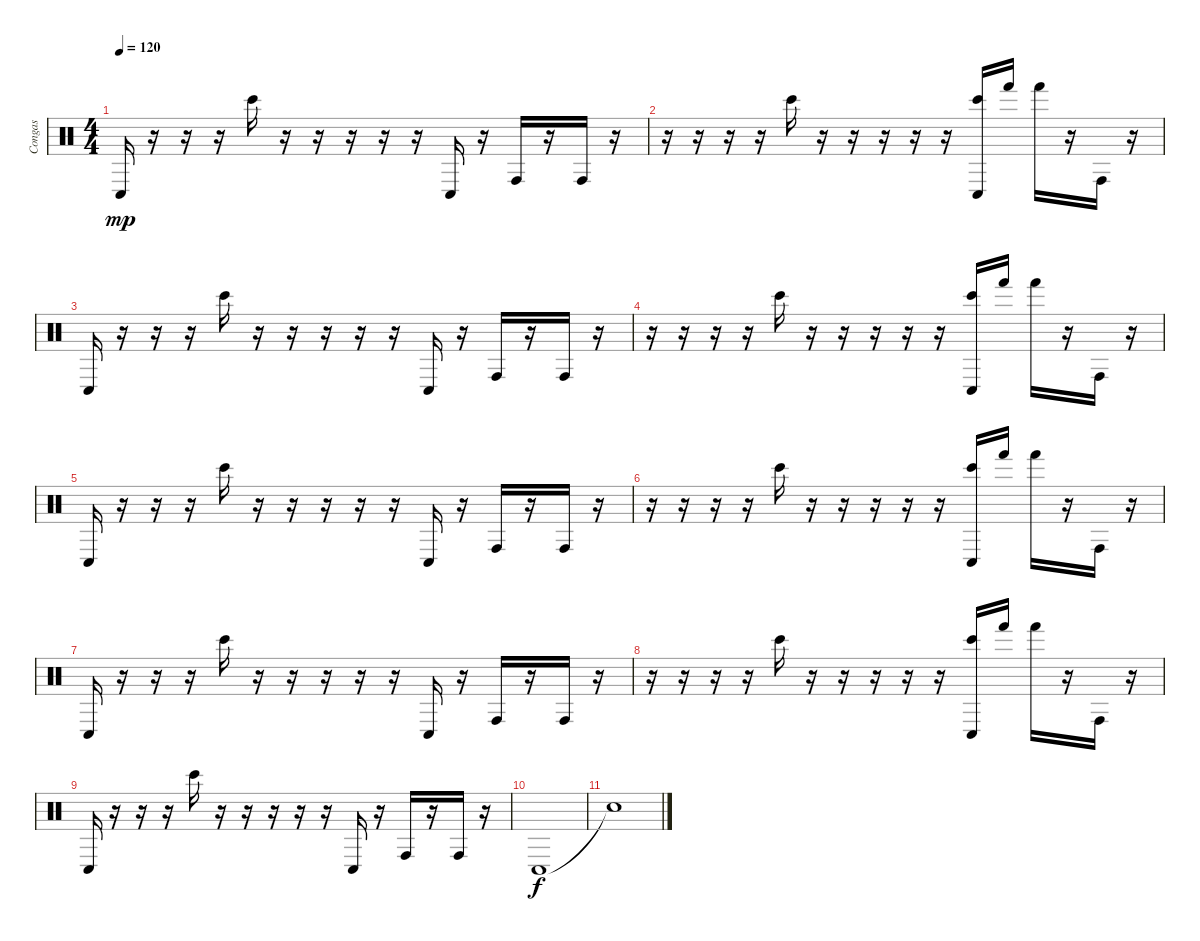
\track ("Congas" "Congas") {instrument percussion}
\staff {score}
\articulation defaults
\ts (4 4)
\tempo 120
\clef neutral
\ks c "Conga low (hit)".16{dy mp}
r.16 r.16 r.16 "Bongo High (hit)".16 r.16 r.16 r.16 r.16 r.16 "Conga low (hit)".16 r.16 "Conga high (hit)".16 r.16 "Conga high (hit)".16 r.16 |
r.16 r.16 r.16 r.16 "Bongo High (hit)".16 r.16 r.16 r.16 r.16 r.16 ("Bongo High (hit)" "Conga low (hit)").16 "Hand (hit)".16 "Hand (hit)".16 r.16 "Conga high (hit)".16 r.16 |
"Conga low (hit)".16 r.16 r.16 r.16 "Bongo High (hit)".16 r.16 r.16 r.16 r.16 r.16 "Conga low (hit)".16 r.16 "Conga high (hit)".16 r.16 "Conga high (hit)".16 r.16 |
r.16 r.16 r.16 r.16 "Bongo High (hit)".16 r.16 r.16 r.16 r.16 r.16 ("Bongo High (hit)" "Conga low (hit)").16 "Hand (hit)".16 "Hand (hit)".16 r.16 "Conga high (hit)".16 r.16 |
"Conga low (hit)".16 r.16 r.16 r.16 "Bongo High (hit)".16 r.16 r.16 r.16 r.16 r.16 "Conga low (hit)".16 r.16 "Conga high (hit)".16 r.16 "Conga high (hit)".16 r.16 |
r.16 r.16 r.16 r.16 "Bongo High (hit)".16 r.16 r.16 r.16 r.16 r.16 ("Bongo High (hit)" "Conga low (hit)").16 "Hand (hit)".16 "Hand (hit)".16 r.16 "Conga high (hit)".16 r.16 |
"Conga low (hit)".16 r.16 r.16 r.16 "Bongo High (hit)".16 r.16 r.16 r.16 r.16 r.16 "Conga low (hit)".16 r.16 "Conga high (hit)".16 r.16 "Conga high (hit)".16 r.16 |
r.16 r.16 r.16 r.16 "Bongo High (hit)".16 r.16 r.16 r.16 r.16 r.16 ("Bongo High (hit)" "Conga low (hit)").16 "Hand (hit)".16 "Hand (hit)".16 r.16 "Conga high (hit)".16 r.16 |
"Conga low (hit)".16 r.16 r.16 r.16 "Bongo High (hit)".16 r.16 r.16 r.16 r.16 r.16 "Conga low (hit)".16 r.16 "Conga high (hit)".16 r.16 "Conga high (hit)".16 r.16 |
"Conga low (hit)".1{dy f} |
"Snare (hit)"{t}.1
